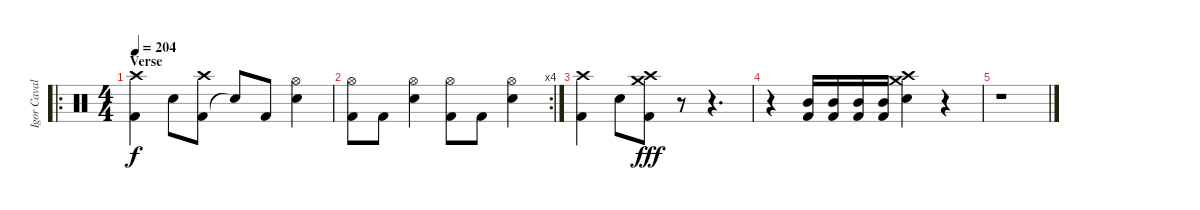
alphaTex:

\track ("Igor Cavalera" "Igor Caval") {instrument percussion}
\staff {score}
\articulation defaults
\ro
\ts (4 4)
\section ("" "Verse")
\tempo 204
\clef neutral
\ks c
("Kick (hit) 2" "Crash high (hit)").4{dy f} "Snare (hit) 2".8 ("Kick (hit) 2" "Crash high (hit)").8 "Snare (hit)"{t}.8 "Kick (hit) 2".8 ("Snare (hit) 2" "Hi-Hat (open)").4 |
\rc 4
("Kick (hit) 2" "Hi-Hat (open)").8 "Kick (hit) 2".8 ("Snare (hit) 2" "Hi-Hat (open)").4 ("Kick (hit) 2" "Hi-Hat (open)").8 "Kick (hit) 2".8 ("Snare (hit) 2" "Hi-Hat (open)").4 |
("Kick (hit) 2" "Crash high (hit)").4 "Snare (hit) 2".8 ("Kick (hit) 2" "Crash medium (hit)" "Crash high (hit)").8{dy fff} r.8 r.4{d} |
r.4 ("Kick (hit) 2" "Mid Tom (hit)").16 ("Kick (hit) 2" "Mid Tom (hit)").16 ("Kick (hit) 2" "Mid Tom (hit)").16 ("Kick (hit) 2" "Mid Tom (hit)").16 ("Snare (hit) 2" "Crash medium (hit)" "Crash high (hit)").4 r.4 |
r.1
